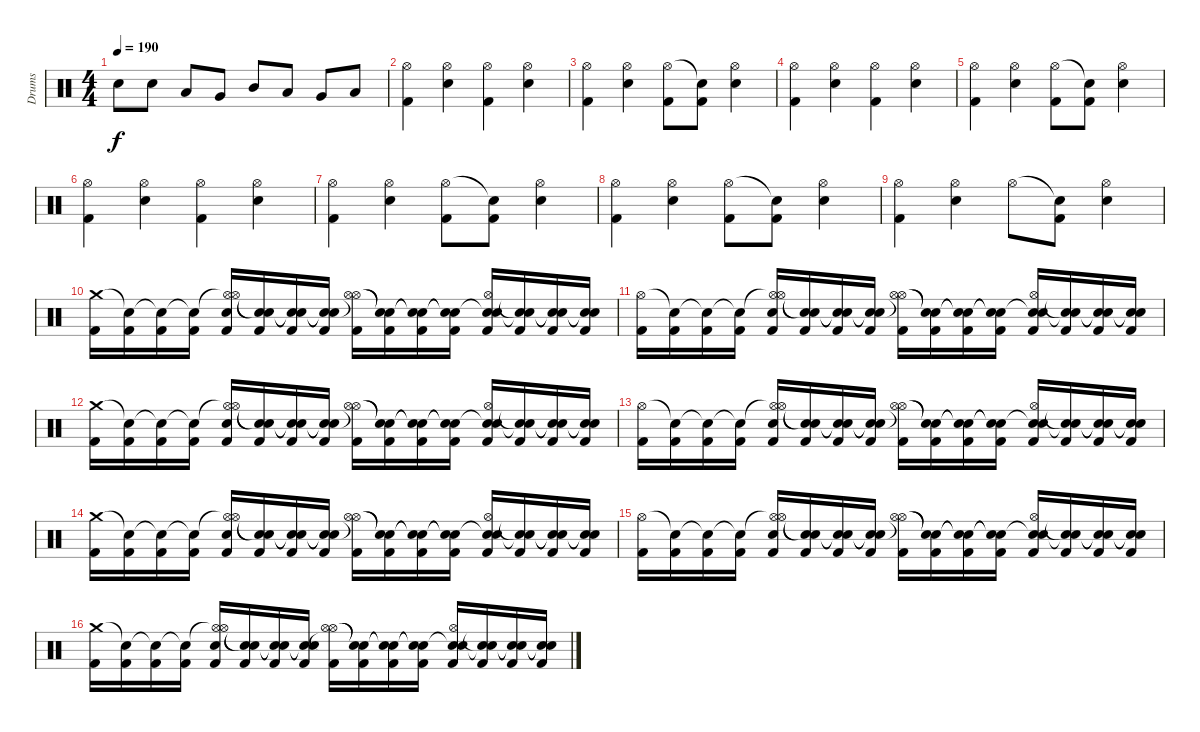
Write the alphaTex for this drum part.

\track ("Drums" "Drums") {instrument percussion}
\staff {score}
\articulation defaults
\ts (4 4)
\tempo 190
\clef neutral
\ks c "Electric Snare (hit)".8{dy f} "Electric Snare (hit)".8 "Low Tom (hit)".8 "Very Low Tom (hit)".8 "Mid Tom (hit)".8 "Low Tom (hit)".8 "Very Low Tom (hit)".8 "Low Floor Tom (hit)".8
|
("Hi-Hat (open)" "Kick (hit) 2").4 ("Hi-Hat (open)" "Electric Snare (hit)").4 ("Hi-Hat (open)" "Kick (hit) 2").4 ("Hi-Hat (open)" "Electric Snare (hit)").4 |
("Hi-Hat (open)" "Kick (hit) 2").4 ("Hi-Hat (open)" "Electric Snare (hit)").4 ("Hi-Hat (open)" "Kick (hit) 2").8 ("Snare (hit)"{t} "Kick (hit) 2").8 ("Hi-Hat (open)" "Electric Snare (hit)").4 |
("Hi-Hat (open)" "Kick (hit) 2").4 ("Hi-Hat (open)" "Electric Snare (hit)").4 ("Hi-Hat (open)" "Kick (hit) 2").4 ("Hi-Hat (open)" "Electric Snare (hit)").4 |
("Hi-Hat (open)" "Kick (hit) 2").4 ("Hi-Hat (open)" "Electric Snare (hit)").4 ("Hi-Hat (open)" "Kick (hit) 2").8 ("Snare (hit)"{t} "Kick (hit) 2").8 ("Hi-Hat (open)" "Electric Snare (hit)").4 |
("Hi-Hat (open)" "Kick (hit) 2").4 ("Hi-Hat (open)" "Electric Snare (hit)").4 ("Hi-Hat (open)" "Kick (hit) 2").4 ("Hi-Hat (open)" "Electric Snare (hit)").4 |
("Hi-Hat (open)" "Kick (hit) 2").4 ("Hi-Hat (open)" "Electric Snare (hit)").4 ("Hi-Hat (open)" "Kick (hit) 2").8 ("Snare (hit)"{t} "Kick (hit) 2").8 ("Hi-Hat (open)" "Electric Snare (hit)").4 |
("Hi-Hat (open)" "Kick (hit) 2").4 ("Hi-Hat (open)" "Electric Snare (hit)").4 ("Hi-Hat (open)" "Kick (hit) 2").8 ("Snare (hit)"{t} "Kick (hit) 2").8 ("Hi-Hat (open)" "Electric Snare (hit)").4 |
("Hi-Hat (open)" "Kick (hit) 2").4 ("Hi-Hat (open)" "Electric Snare (hit)").4 "Hi-Hat (open)".8 ("Snare (hit)"{t} "Kick (hit) 2").8 ("Hi-Hat (open)" "Electric Snare (hit)").4 |
("Crash medium (hit)" "Kick (hit) 2").16 ("Snare (hit)"{t} "Kick (hit) 2").16 ("Snare (hit)"{t} "Kick (hit) 2").16 ("Snare (hit)"{t} "Kick (hit) 2").16 ("Hi-Hat (open)"{t} "Hi-Hat (open)" "Electric Snare (hit)" "Kick (hit) 2").16 ("Snare (hit)"{t} "Snare (hit)"{t} "Kick (hit) 2").16 ("Snare (hit)"{t} "Snare (hit)"{t} "Kick (hit) 2").16 ("Snare (hit)"{t} "Snare (hit)"{t} "Kick (hit) 2").16 ("Hi-Hat (open)" "Hi-Hat (open)"{t} "Kick (hit) 2").16 ("Snare (hit)"{t} "Snare (hit)"{t} "Kick (hit) 2").16 ("Snare (hit)"{t} "Snare (hit)"{t} "Kick (hit) 2").16 ("Snare (hit)"{t} "Snare (hit)"{t} "Kick (hit) 2").16 ("Snare (hit)"{t} "Hi-Hat (open)" "Electric Snare (hit)" "Kick (hit) 2").16 ("Snare (hit)"{t} "Snare (hit)"{t} "Kick (hit) 2").16 ("Snare (hit)"{t} "Snare (hit)"{t} "Kick (hit) 2").16 ("Snare (hit)"{t} "Snare (hit)"{t} "Kick (hit) 2").16 |
("Hi-Hat (open)" "Kick (hit) 2").16 ("Snare (hit)"{t} "Kick (hit) 2").16 ("Snare (hit)"{t} "Kick (hit) 2").16 ("Snare (hit)"{t} "Kick (hit) 2").16 ("Hi-Hat (open)"{t} "Hi-Hat (open)" "Electric Snare (hit)" "Kick (hit) 2").16 ("Snare (hit)"{t} "Snare (hit)"{t} "Kick (hit) 2").16 ("Snare (hit)"{t} "Snare (hit)"{t} "Kick (hit) 2").16 ("Snare (hit)"{t} "Snare (hit)"{t} "Kick (hit) 2").16 ("Hi-Hat (open)" "Hi-Hat (open)"{t} "Kick (hit) 2").16 ("Snare (hit)"{t} "Snare (hit)"{t} "Kick (hit) 2").16 ("Snare (hit)"{t} "Snare (hit)"{t} "Kick (hit) 2").16 ("Snare (hit)"{t} "Snare (hit)"{t} "Kick (hit) 2").16 ("Snare (hit)"{t} "Hi-Hat (open)" "Electric Snare (hit)" "Kick (hit) 2").16 ("Snare (hit)"{t} "Snare (hit)"{t} "Kick (hit) 2").16 ("Snare (hit)"{t} "Snare (hit)"{t} "Kick (hit) 2").16 ("Snare (hit)"{t} "Snare (hit)"{t} "Kick (hit) 2").16 |
("Crash medium (hit)" "Kick (hit) 2").16 ("Snare (hit)"{t} "Kick (hit) 2").16 ("Snare (hit)"{t} "Kick (hit) 2").16 ("Snare (hit)"{t} "Kick (hit) 2").16 ("Hi-Hat (open)"{t} "Hi-Hat (open)" "Electric Snare (hit)" "Kick (hit) 2").16 ("Snare (hit)"{t} "Snare (hit)"{t} "Kick (hit) 2").16 ("Snare (hit)"{t} "Snare (hit)"{t} "Kick (hit) 2").16 ("Snare (hit)"{t} "Snare (hit)"{t} "Kick (hit) 2").16 ("Hi-Hat (open)" "Hi-Hat (open)"{t} "Kick (hit) 2").16 ("Snare (hit)"{t} "Snare (hit)"{t} "Kick (hit) 2").16 ("Snare (hit)"{t} "Snare (hit)"{t} "Kick (hit) 2").16 ("Snare (hit)"{t} "Snare (hit)"{t} "Kick (hit) 2").16 ("Snare (hit)"{t} "Hi-Hat (open)" "Electric Snare (hit)" "Kick (hit) 2").16 ("Snare (hit)"{t} "Snare (hit)"{t} "Kick (hit) 2").16 ("Snare (hit)"{t} "Snare (hit)"{t} "Kick (hit) 2").16 ("Snare (hit)"{t} "Snare (hit)"{t} "Kick (hit) 2").16 |
("Hi-Hat (open)" "Kick (hit) 2").16 ("Snare (hit)"{t} "Kick (hit) 2").16 ("Snare (hit)"{t} "Kick (hit) 2").16 ("Snare (hit)"{t} "Kick (hit) 2").16 ("Hi-Hat (open)"{t} "Hi-Hat (open)" "Electric Snare (hit)" "Kick (hit) 2").16 ("Snare (hit)"{t} "Snare (hit)"{t} "Kick (hit) 2").16 ("Snare (hit)"{t} "Snare (hit)"{t} "Kick (hit) 2").16 ("Snare (hit)"{t} "Snare (hit)"{t} "Kick (hit) 2").16 ("Hi-Hat (open)" "Hi-Hat (open)"{t} "Kick (hit) 2").16 ("Snare (hit)"{t} "Snare (hit)"{t} "Kick (hit) 2").16 ("Snare (hit)"{t} "Snare (hit)"{t} "Kick (hit) 2").16 ("Snare (hit)"{t} "Snare (hit)"{t} "Kick (hit) 2").16 ("Snare (hit)"{t} "Hi-Hat (open)" "Electric Snare (hit)" "Kick (hit) 2").16 ("Snare (hit)"{t} "Snare (hit)"{t} "Kick (hit) 2").16 ("Snare (hit)"{t} "Snare (hit)"{t} "Kick (hit) 2").16 ("Snare (hit)"{t} "Snare (hit)"{t} "Kick (hit) 2").16 |
("Crash medium (hit)" "Kick (hit) 2").16 ("Snare (hit)"{t} "Kick (hit) 2").16 ("Snare (hit)"{t} "Kick (hit) 2").16 ("Snare (hit)"{t} "Kick (hit) 2").16 ("Hi-Hat (open)"{t} "Hi-Hat (open)" "Electric Snare (hit)" "Kick (hit) 2").16 ("Snare (hit)"{t} "Snare (hit)"{t} "Kick (hit) 2").16 ("Snare (hit)"{t} "Snare (hit)"{t} "Kick (hit) 2").16 ("Snare (hit)"{t} "Snare (hit)"{t} "Kick (hit) 2").16 ("Hi-Hat (open)" "Hi-Hat (open)"{t} "Kick (hit) 2").16 ("Snare (hit)"{t} "Snare (hit)"{t} "Kick (hit) 2").16 ("Snare (hit)"{t} "Snare (hit)"{t} "Kick (hit) 2").16 ("Snare (hit)"{t} "Snare (hit)"{t} "Kick (hit) 2").16 ("Snare (hit)"{t} "Hi-Hat (open)" "Electric Snare (hit)" "Kick (hit) 2").16 ("Snare (hit)"{t} "Snare (hit)"{t} "Kick (hit) 2").16 ("Snare (hit)"{t} "Snare (hit)"{t} "Kick (hit) 2").16 ("Snare (hit)"{t} "Snare (hit)"{t} "Kick (hit) 2").16 |
("Hi-Hat (open)" "Kick (hit) 2").16 ("Snare (hit)"{t} "Kick (hit) 2").16 ("Snare (hit)"{t} "Kick (hit) 2").16 ("Snare (hit)"{t} "Kick (hit) 2").16 ("Hi-Hat (open)"{t} "Hi-Hat (open)" "Electric Snare (hit)" "Kick (hit) 2").16 ("Snare (hit)"{t} "Snare (hit)"{t} "Kick (hit) 2").16 ("Snare (hit)"{t} "Snare (hit)"{t} "Kick (hit) 2").16 ("Snare (hit)"{t} "Snare (hit)"{t} "Kick (hit) 2").16 ("Hi-Hat (open)" "Hi-Hat (open)"{t} "Kick (hit) 2").16 ("Snare (hit)"{t} "Snare (hit)"{t} "Kick (hit) 2").16 ("Snare (hit)"{t} "Snare (hit)"{t} "Kick (hit) 2").16 ("Snare (hit)"{t} "Snare (hit)"{t} "Kick (hit) 2").16 ("Snare (hit)"{t} "Hi-Hat (open)" "Electric Snare (hit)" "Kick (hit) 2").16 ("Snare (hit)"{t} "Snare (hit)"{t} "Kick (hit) 2").16 ("Snare (hit)"{t} "Snare (hit)"{t} "Kick (hit) 2").16 ("Snare (hit)"{t} "Snare (hit)"{t} "Kick (hit) 2").16 |
("Crash medium (hit)" "Kick (hit) 2").16 ("Snare (hit)"{t} "Kick (hit) 2").16 ("Snare (hit)"{t} "Kick (hit) 2").16 ("Snare (hit)"{t} "Kick (hit) 2").16 ("Hi-Hat (open)"{t} "Hi-Hat (open)" "Electric Snare (hit)" "Kick (hit) 2").16 ("Snare (hit)"{t} "Snare (hit)"{t} "Kick (hit) 2").16 ("Snare (hit)"{t} "Snare (hit)"{t} "Kick (hit) 2").16 ("Snare (hit)"{t} "Snare (hit)"{t} "Kick (hit) 2").16 ("Hi-Hat (open)" "Hi-Hat (open)"{t} "Kick (hit) 2").16 ("Snare (hit)"{t} "Snare (hit)"{t} "Kick (hit) 2").16 ("Snare (hit)"{t} "Snare (hit)"{t} "Kick (hit) 2").16 ("Snare (hit)"{t} "Snare (hit)"{t} "Kick (hit) 2").16 ("Snare (hit)"{t} "Hi-Hat (open)" "Electric Snare (hit)" "Kick (hit) 2").16 ("Snare (hit)"{t} "Snare (hit)"{t} "Kick (hit) 2").16 ("Snare (hit)"{t} "Snare (hit)"{t} "Kick (hit) 2").16 ("Snare (hit)"{t} "Snare (hit)"{t} "Kick (hit) 2").16
